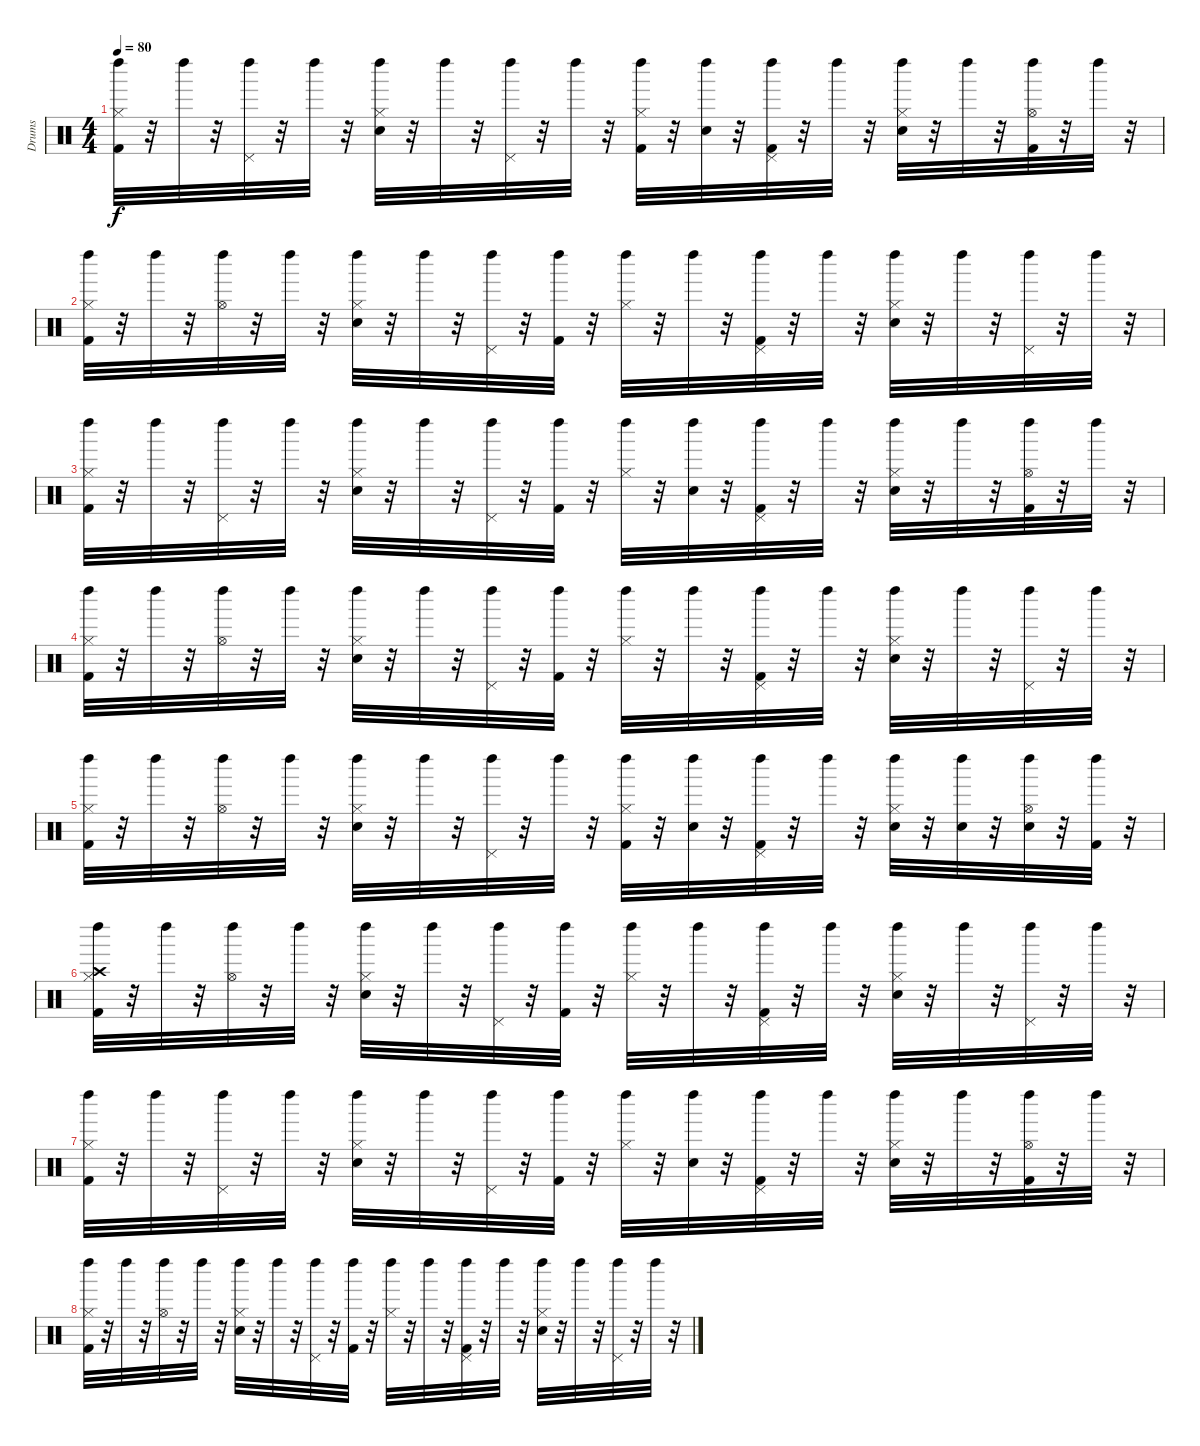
\track ("Drums" "Drums") {instrument percussion}
\staff {score}
\articulation defaults
\ts (4 4)
\tempo 80
\clef neutral
\ks c
("Left Maraca (hit)" "Kick (hit) 2" "Hi-Hat (closed)").32{dy f} r.32 "Left Maraca (hit)".32 r.32 ("Left Maraca (hit)" "Pedal Hi-Hat (hit)").32 r.32 "Left Maraca (hit)".32 r.32 ("Left Maraca (hit)" "Snare (hit) 2" "Hi-Hat (closed)").32 r.32 "Left Maraca (hit)".32 r.32 ("Left Maraca (hit)" "Pedal Hi-Hat (hit)").32 r.32 "Left Maraca (hit)".32 r.32 ("Left Maraca (hit)" "Kick (hit) 2" "Hi-Hat (closed)").32 r.32 ("Left Maraca (hit)" "Snare (hit) 2").32 r.32 ("Left Maraca (hit)" "Kick (hit) 2" "Pedal Hi-Hat (hit)").32 r.32 "Left Maraca (hit)".32 r.32 ("Left Maraca (hit)" "Snare (hit) 2" "Hi-Hat (closed)").32 r.32 "Left Maraca (hit)".32 r.32 ("Left Maraca (hit)" "Hi-Hat (open)" "Kick (hit) 2").32 r.32 "Left Maraca (hit)".32 r.32 |
("Left Maraca (hit)" "Kick (hit) 2" "Hi-Hat (closed)").32 r.32 "Left Maraca (hit)".32 r.32 ("Left Maraca (hit)" "Hi-Hat (open)").32 r.32 "Left Maraca (hit)".32 r.32 ("Left Maraca (hit)" "Snare (hit) 2" "Hi-Hat (closed)").32 r.32 "Left Maraca (hit)".32 r.32 ("Left Maraca (hit)" "Pedal Hi-Hat (hit)").32 r.32 ("Left Maraca (hit)" "Kick (hit) 2").32 r.32 ("Left Maraca (hit)" "Hi-Hat (closed)").32 r.32 "Left Maraca (hit)".32 r.32 ("Left Maraca (hit)" "Kick (hit) 2" "Pedal Hi-Hat (hit)").32 r.32 "Left Maraca (hit)".32 r.32 ("Left Maraca (hit)" "Snare (hit) 2" "Hi-Hat (closed)").32 r.32 "Left Maraca (hit)".32 r.32 ("Left Maraca (hit)" "Pedal Hi-Hat (hit)").32 r.32 "Left Maraca (hit)".32 r.32 |
("Left Maraca (hit)" "Kick (hit) 2" "Hi-Hat (closed)").32 r.32 "Left Maraca (hit)".32 r.32 ("Left Maraca (hit)" "Pedal Hi-Hat (hit)").32 r.32 "Left Maraca (hit)".32 r.32 ("Left Maraca (hit)" "Snare (hit) 2" "Hi-Hat (closed)").32 r.32 "Left Maraca (hit)".32 r.32 ("Left Maraca (hit)" "Pedal Hi-Hat (hit)").32 r.32 ("Left Maraca (hit)" "Kick (hit) 2").32 r.32 ("Left Maraca (hit)" "Hi-Hat (closed)").32 r.32 ("Left Maraca (hit)" "Snare (hit) 2").32 r.32 ("Left Maraca (hit)" "Kick (hit) 2" "Pedal Hi-Hat (hit)").32 r.32 "Left Maraca (hit)".32 r.32 ("Left Maraca (hit)" "Snare (hit) 2" "Hi-Hat (closed)").32 r.32 "Left Maraca (hit)".32 r.32 ("Left Maraca (hit)" "Hi-Hat (open)" "Kick (hit) 2").32 r.32 "Left Maraca (hit)".32 r.32 |
("Left Maraca (hit)" "Kick (hit) 2" "Hi-Hat (closed)").32 r.32 "Left Maraca (hit)".32 r.32 ("Left Maraca (hit)" "Hi-Hat (open)").32 r.32 "Left Maraca (hit)".32 r.32 ("Left Maraca (hit)" "Snare (hit) 2" "Hi-Hat (closed)").32 r.32 "Left Maraca (hit)".32 r.32 ("Left Maraca (hit)" "Pedal Hi-Hat (hit)").32 r.32 ("Left Maraca (hit)" "Kick (hit) 2").32 r.32 ("Left Maraca (hit)" "Hi-Hat (closed)").32 r.32 "Left Maraca (hit)".32 r.32 ("Left Maraca (hit)" "Kick (hit) 2" "Pedal Hi-Hat (hit)").32 r.32 "Left Maraca (hit)".32 r.32 ("Left Maraca (hit)" "Snare (hit) 2" "Hi-Hat (closed)").32 r.32 "Left Maraca (hit)".32 r.32 ("Left Maraca (hit)" "Pedal Hi-Hat (hit)").32 r.32 "Left Maraca (hit)".32 r.32 |
("Left Maraca (hit)" "Kick (hit) 2" "Hi-Hat (closed)").32 r.32 "Left Maraca (hit)".32 r.32 ("Left Maraca (hit)" "Hi-Hat (open)").32 r.32 "Left Maraca (hit)".32 r.32 ("Left Maraca (hit)" "Snare (hit) 2" "Hi-Hat (closed)").32 r.32 "Left Maraca (hit)".32 r.32 ("Left Maraca (hit)" "Pedal Hi-Hat (hit)").32 r.32 "Left Maraca (hit)".32 r.32 ("Left Maraca (hit)" "Kick (hit) 2" "Hi-Hat (closed)").32 r.32 ("Left Maraca (hit)" "Snare (hit) 2").32 r.32 ("Left Maraca (hit)" "Kick (hit) 2" "Pedal Hi-Hat (hit)").32 r.32 "Left Maraca (hit)".32 r.32 ("Left Maraca (hit)" "Snare (hit) 2" "Hi-Hat (closed)").32 r.32 ("Left Maraca (hit)" "Snare (hit) 2").32 r.32 ("Left Maraca (hit)" "Hi-Hat (open)" "Snare (hit) 2").32 r.32 ("Left Maraca (hit)" "Kick (hit) 2").32 r.32 |
("Left Maraca (hit)" "Crash high (hit)" "Kick (hit) 2" "Hi-Hat (closed)").32 r.32 "Left Maraca (hit)".32 r.32 ("Left Maraca (hit)" "Hi-Hat (open)").32 r.32 "Left Maraca (hit)".32 r.32 ("Left Maraca (hit)" "Snare (hit) 2" "Hi-Hat (closed)").32 r.32 "Left Maraca (hit)".32 r.32 ("Left Maraca (hit)" "Pedal Hi-Hat (hit)").32 r.32 ("Left Maraca (hit)" "Kick (hit) 2").32 r.32 ("Left Maraca (hit)" "Hi-Hat (closed)").32 r.32 "Left Maraca (hit)".32 r.32 ("Left Maraca (hit)" "Kick (hit) 2" "Pedal Hi-Hat (hit)").32 r.32 "Left Maraca (hit)".32 r.32 ("Left Maraca (hit)" "Snare (hit) 2" "Hi-Hat (closed)").32 r.32 "Left Maraca (hit)".32 r.32 ("Left Maraca (hit)" "Pedal Hi-Hat (hit)").32 r.32 "Left Maraca (hit)".32 r.32 |
("Left Maraca (hit)" "Kick (hit) 2" "Hi-Hat (closed)").32 r.32 "Left Maraca (hit)".32 r.32 ("Left Maraca (hit)" "Pedal Hi-Hat (hit)").32 r.32 "Left Maraca (hit)".32 r.32 ("Left Maraca (hit)" "Snare (hit) 2" "Hi-Hat (closed)").32 r.32 "Left Maraca (hit)".32 r.32 ("Left Maraca (hit)" "Pedal Hi-Hat (hit)").32 r.32 ("Left Maraca (hit)" "Kick (hit) 2").32 r.32 ("Left Maraca (hit)" "Hi-Hat (closed)").32 r.32 ("Left Maraca (hit)" "Snare (hit) 2").32 r.32 ("Left Maraca (hit)" "Kick (hit) 2" "Pedal Hi-Hat (hit)").32 r.32 "Left Maraca (hit)".32 r.32 ("Left Maraca (hit)" "Snare (hit) 2" "Hi-Hat (closed)").32 r.32 "Left Maraca (hit)".32 r.32 ("Left Maraca (hit)" "Hi-Hat (open)" "Kick (hit) 2").32 r.32 "Left Maraca (hit)".32 r.32 |
("Left Maraca (hit)" "Kick (hit) 2" "Hi-Hat (closed)").32 r.32 "Left Maraca (hit)".32 r.32 ("Left Maraca (hit)" "Hi-Hat (open)").32 r.32 "Left Maraca (hit)".32 r.32 ("Left Maraca (hit)" "Snare (hit) 2" "Hi-Hat (closed)").32 r.32 "Left Maraca (hit)".32 r.32 ("Left Maraca (hit)" "Pedal Hi-Hat (hit)").32 r.32 ("Left Maraca (hit)" "Kick (hit) 2").32 r.32 ("Left Maraca (hit)" "Hi-Hat (closed)").32 r.32 "Left Maraca (hit)".32 r.32 ("Left Maraca (hit)" "Kick (hit) 2" "Pedal Hi-Hat (hit)").32 r.32 "Left Maraca (hit)".32 r.32 ("Left Maraca (hit)" "Snare (hit) 2" "Hi-Hat (closed)").32 r.32 "Left Maraca (hit)".32 r.32 ("Left Maraca (hit)" "Pedal Hi-Hat (hit)").32 r.32 "Left Maraca (hit)".32 r.32
